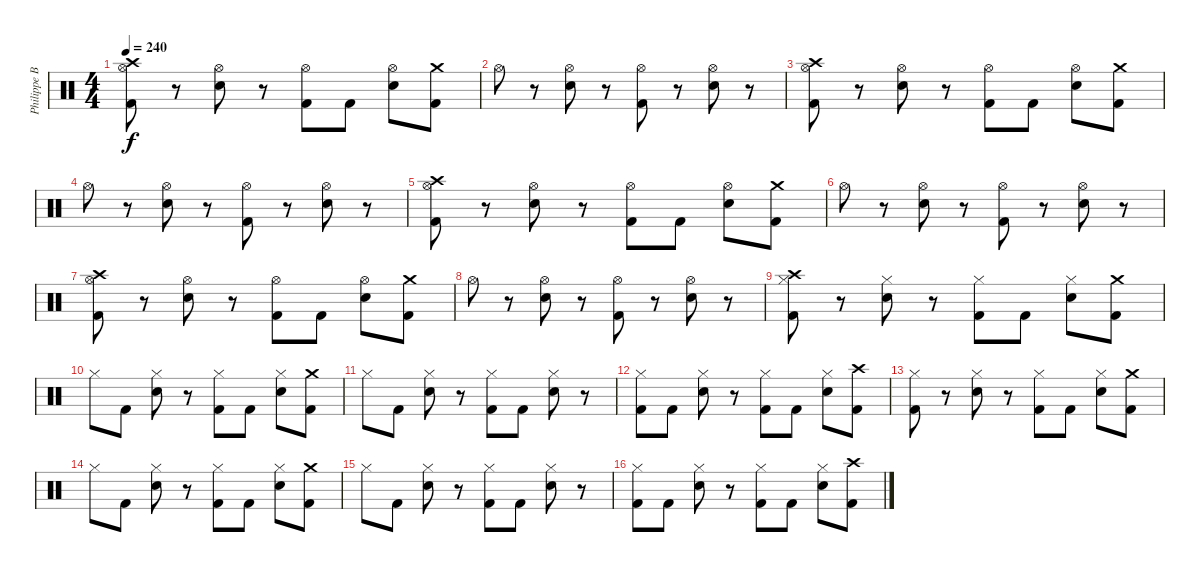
\track ("Philippe Borda" "Philippe B") {instrument percussion}
\staff {score}
\articulation defaults
\ts (4 4)
\tempo 240
\clef neutral
\ks c
("Crash high (hit)" "Hi-Hat (open)" "Kick (hit) 2").8{dy f} r.8 ("Hi-Hat (open)" "Snare (hit) 2").8 r.8 ("Hi-Hat (open)" "Kick (hit) 2").8 "Kick (hit) 2".8 ("Hi-Hat (open)" "Snare (hit) 2").8 ("Crash medium (hit)" "Kick (hit) 2").8 |
"Hi-Hat (open)".8 r.8 ("Hi-Hat (open)" "Snare (hit) 2").8 r.8 ("Hi-Hat (open)" "Kick (hit) 2").8 r.8 ("Hi-Hat (open)" "Snare (hit) 2").8 r.8 |
("Crash high (hit)" "Hi-Hat (open)" "Kick (hit) 2").8 r.8 ("Hi-Hat (open)" "Snare (hit) 2").8 r.8 ("Hi-Hat (open)" "Kick (hit) 2").8 "Kick (hit) 2".8 ("Hi-Hat (open)" "Snare (hit) 2").8 ("Crash medium (hit)" "Kick (hit) 2").8 |
"Hi-Hat (open)".8 r.8 ("Hi-Hat (open)" "Snare (hit) 2").8 r.8 ("Hi-Hat (open)" "Kick (hit) 2").8 r.8 ("Hi-Hat (open)" "Snare (hit) 2").8 r.8 |
("Crash high (hit)" "Hi-Hat (open)" "Kick (hit) 2").8 r.8 ("Hi-Hat (open)" "Snare (hit) 2").8 r.8 ("Hi-Hat (open)" "Kick (hit) 2").8 "Kick (hit) 2".8 ("Hi-Hat (open)" "Snare (hit) 2").8 ("Crash medium (hit)" "Kick (hit) 2").8 |
"Hi-Hat (open)".8 r.8 ("Hi-Hat (open)" "Snare (hit) 2").8 r.8 ("Hi-Hat (open)" "Kick (hit) 2").8 r.8 ("Hi-Hat (open)" "Snare (hit) 2").8 r.8 |
("Crash high (hit)" "Hi-Hat (open)" "Kick (hit) 2").8 r.8 ("Hi-Hat (open)" "Snare (hit) 2").8 r.8 ("Hi-Hat (open)" "Kick (hit) 2").8 "Kick (hit) 2".8 ("Hi-Hat (open)" "Snare (hit) 2").8 ("Crash medium (hit)" "Kick (hit) 2").8 |
"Hi-Hat (open)".8 r.8 ("Hi-Hat (open)" "Snare (hit) 2").8 r.8 ("Hi-Hat (open)" "Kick (hit) 2").8 r.8 ("Hi-Hat (open)" "Snare (hit) 2").8 r.8 |
("Crash high (hit)" "Hi-Hat (closed)" "Kick (hit) 2").8 r.8 ("Hi-Hat (closed)" "Snare (hit) 2").8 r.8 ("Hi-Hat (closed)" "Kick (hit) 2").8 "Kick (hit) 2".8 ("Hi-Hat (closed)" "Snare (hit) 2").8 ("Crash medium (hit)" "Kick (hit) 2").8 |
"Hi-Hat (closed)".8 "Kick (hit) 2".8 ("Hi-Hat (closed)" "Snare (hit) 2").8 r.8 ("Hi-Hat (closed)" "Kick (hit) 2").8 "Kick (hit) 2".8 ("Hi-Hat (closed)" "Snare (hit) 2").8 ("Crash medium (hit)" "Kick (hit) 2").8 |
"Hi-Hat (closed)".8 "Kick (hit) 2".8 ("Hi-Hat (closed)" "Snare (hit) 2").8 r.8 ("Hi-Hat (closed)" "Kick (hit) 2").8 "Kick (hit) 2".8 ("Hi-Hat (closed)" "Snare (hit) 2").8 r.8 |
("Hi-Hat (closed)" "Kick (hit) 2").8 "Kick (hit) 2".8 ("Hi-Hat (closed)" "Snare (hit) 2").8 r.8 ("Hi-Hat (closed)" "Kick (hit) 2").8 "Kick (hit) 2".8 ("Hi-Hat (closed)" "Snare (hit) 2").8 ("Crash high (hit)" "Kick (hit) 2").8 |
("Hi-Hat (closed)" "Kick (hit) 2").8 r.8 ("Hi-Hat (closed)" "Snare (hit) 2").8 r.8 ("Hi-Hat (closed)" "Kick (hit) 2").8 "Kick (hit) 2".8 ("Hi-Hat (closed)" "Snare (hit) 2").8 ("Crash medium (hit)" "Kick (hit) 2").8 |
"Hi-Hat (closed)".8 "Kick (hit) 2".8 ("Hi-Hat (closed)" "Snare (hit) 2").8 r.8 ("Hi-Hat (closed)" "Kick (hit) 2").8 "Kick (hit) 2".8 ("Hi-Hat (closed)" "Snare (hit) 2").8 ("Crash medium (hit)" "Kick (hit) 2").8 |
"Hi-Hat (closed)".8 "Kick (hit) 2".8 ("Hi-Hat (closed)" "Snare (hit) 2").8 r.8 ("Hi-Hat (closed)" "Kick (hit) 2").8 "Kick (hit) 2".8 ("Hi-Hat (closed)" "Snare (hit) 2").8 r.8 |
("Hi-Hat (closed)" "Kick (hit) 2").8 "Kick (hit) 2".8 ("Hi-Hat (closed)" "Snare (hit) 2").8 r.8 ("Hi-Hat (closed)" "Kick (hit) 2").8 "Kick (hit) 2".8 ("Hi-Hat (closed)" "Snare (hit) 2").8 ("Crash high (hit)" "Kick (hit) 2").8
